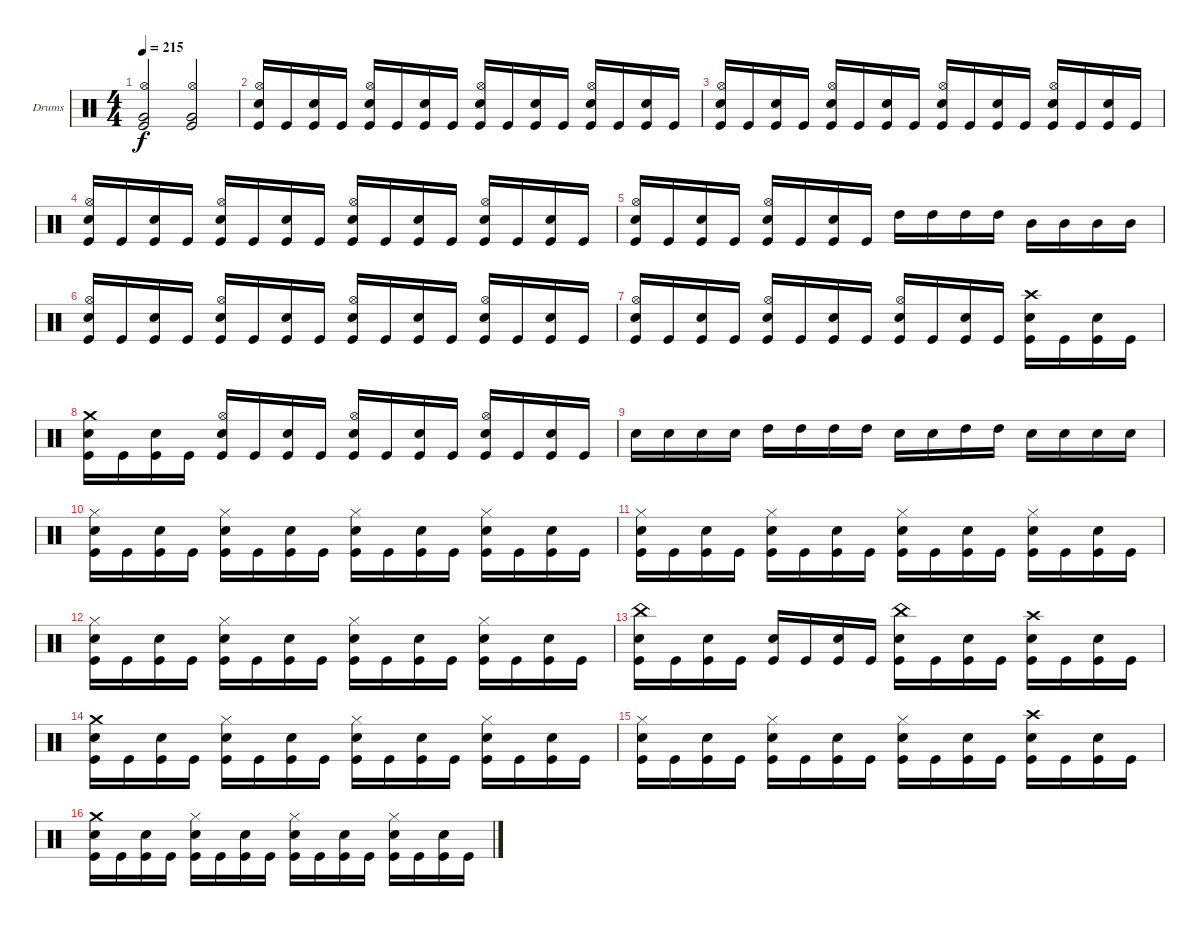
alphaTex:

\defaultSystemsLayout 4
\bracketExtendMode groupsimilarinstruments
\firstSystemTrackNameOrientation horizontal
\otherSystemsTrackNameOrientation horizontal
\track ("Trey Williams" "Drums") {instrument percussion}
\staff {score}
\articulation defaults
\ts (4 4)
\tempo 215
\clef neutral
\ks c
("Kick (hit)" "Hi-Hat (open)" "Very Low Tom (hit)").2{dy f} ("Kick (hit)" "Hi-Hat (open)" "Very Low Tom (hit)").2 |
("Kick (hit)" "Snare (hit) 2" "Hi-Hat (open)").16 "Kick (hit)".16 ("Kick (hit)" "Snare (hit) 2").16 "Kick (hit)".16 ("Kick (hit)" "Snare (hit) 2" "Hi-Hat (open)").16 "Kick (hit)".16 ("Kick (hit)" "Snare (hit) 2").16 "Kick (hit)".16 ("Kick (hit)" "Snare (hit) 2" "Hi-Hat (open)").16 "Kick (hit)".16 ("Kick (hit)" "Snare (hit) 2").16 "Kick (hit)".16 ("Kick (hit)" "Snare (hit) 2" "Hi-Hat (open)").16 "Kick (hit)".16 ("Kick (hit)" "Snare (hit) 2").16 "Kick (hit)".16 |
("Kick (hit)" "Snare (hit) 2" "Hi-Hat (open)").16 "Kick (hit)".16 ("Kick (hit)" "Snare (hit) 2").16 "Kick (hit)".16 ("Kick (hit)" "Snare (hit) 2" "Hi-Hat (open)").16 "Kick (hit)".16 ("Kick (hit)" "Snare (hit) 2").16 "Kick (hit)".16 ("Kick (hit)" "Snare (hit) 2" "Hi-Hat (open)").16 "Kick (hit)".16 ("Kick (hit)" "Snare (hit) 2").16 "Kick (hit)".16 ("Kick (hit)" "Snare (hit) 2" "Hi-Hat (open)").16 "Kick (hit)".16 ("Kick (hit)" "Snare (hit) 2").16 "Kick (hit)".16 |
("Kick (hit)" "Snare (hit) 2" "Hi-Hat (open)").16 "Kick (hit)".16 ("Kick (hit)" "Snare (hit) 2").16 "Kick (hit)".16 ("Kick (hit)" "Snare (hit) 2" "Hi-Hat (open)").16 "Kick (hit)".16 ("Kick (hit)" "Snare (hit) 2").16 "Kick (hit)".16 ("Kick (hit)" "Snare (hit) 2" "Hi-Hat (open)").16 "Kick (hit)".16 ("Kick (hit)" "Snare (hit) 2").16 "Kick (hit)".16 ("Kick (hit)" "Snare (hit) 2" "Hi-Hat (open)").16 "Kick (hit)".16 ("Kick (hit)" "Snare (hit) 2").16 "Kick (hit)".16 |
("Kick (hit)" "Snare (hit) 2" "Hi-Hat (open)").16 "Kick (hit)".16 ("Kick (hit)" "Snare (hit) 2").16 "Kick (hit)".16 ("Kick (hit)" "Snare (hit) 2" "Hi-Hat (open)").16 "Kick (hit)".16 ("Kick (hit)" "Snare (hit) 2").16 "Kick (hit)".16 "High Tom (hit)".16 "High Tom (hit)".16 "High Tom (hit)".16 "High Tom (hit)".16 "Mid Tom (hit)".16 "Mid Tom (hit)".16 "Mid Tom (hit)".16 "Mid Tom (hit)".16 |
("Kick (hit)" "Snare (hit) 2" "Hi-Hat (open)").16 "Kick (hit)".16 ("Kick (hit)" "Snare (hit) 2").16 "Kick (hit)".16 ("Kick (hit)" "Snare (hit) 2" "Hi-Hat (open)").16 "Kick (hit)".16 ("Kick (hit)" "Snare (hit) 2").16 "Kick (hit)".16 ("Kick (hit)" "Snare (hit) 2" "Hi-Hat (open)").16 "Kick (hit)".16 ("Kick (hit)" "Snare (hit) 2").16 "Kick (hit)".16 ("Kick (hit)" "Snare (hit) 2" "Hi-Hat (open)").16 "Kick (hit)".16 ("Kick (hit)" "Snare (hit) 2").16 "Kick (hit)".16 |
("Kick (hit)" "Snare (hit) 2" "Hi-Hat (open)").16 "Kick (hit)".16 ("Kick (hit)" "Snare (hit) 2").16 "Kick (hit)".16 ("Kick (hit)" "Snare (hit) 2" "Hi-Hat (open)").16 "Kick (hit)".16 ("Kick (hit)" "Snare (hit) 2").16 "Kick (hit)".16 ("Kick (hit)" "Snare (hit) 2" "Hi-Hat (open)").16 "Kick (hit)".16 ("Kick (hit)" "Snare (hit) 2").16 "Kick (hit)".16 ("Kick (hit)" "Snare (hit) 2" "Crash high (hit)").16 "Kick (hit)".16 ("Kick (hit)" "Snare (hit) 2").16 "Kick (hit)".16 |
("Kick (hit)" "Snare (hit) 2" "Crash medium (hit)").16 "Kick (hit)".16 ("Kick (hit)" "Snare (hit) 2").16 "Kick (hit)".16 ("Kick (hit)" "Snare (hit) 2" "Hi-Hat (open)").16 "Kick (hit)".16 ("Kick (hit)" "Snare (hit) 2").16 "Kick (hit)".16 ("Kick (hit)" "Snare (hit) 2" "Hi-Hat (open)").16 "Kick (hit)".16 ("Kick (hit)" "Snare (hit) 2").16 "Kick (hit)".16 ("Kick (hit)" "Snare (hit) 2" "Hi-Hat (open)").16 "Kick (hit)".16 ("Kick (hit)" "Snare (hit) 2").16 "Kick (hit)".16 |
"Snare (hit) 2".16 "Snare (hit) 2".16 "Snare (hit) 2".16 "Snare (hit) 2".16 "High Tom (hit)".16 "High Tom (hit)".16 "High Tom (hit)".16 "High Tom (hit)".16 "Snare (hit) 2".16 "Snare (hit) 2".16 "High Tom (hit)".16 "High Tom (hit)".16 "Snare (hit) 2".16 "Snare (hit) 2".16 "Snare (hit) 2".16 "Snare (hit) 2".16 |
("Kick (hit)" "Snare (hit) 2" "Hi-Hat (closed)").16 "Kick (hit)".16 ("Kick (hit)" "Snare (hit) 2").16 "Kick (hit)".16 ("Kick (hit)" "Snare (hit) 2" "Hi-Hat (closed)").16 "Kick (hit)".16 ("Kick (hit)" "Snare (hit) 2").16 "Kick (hit)".16 ("Kick (hit)" "Snare (hit) 2" "Hi-Hat (closed)").16 "Kick (hit)".16 ("Kick (hit)" "Snare (hit) 2").16 "Kick (hit)".16 ("Kick (hit)" "Snare (hit) 2" "Hi-Hat (closed)").16 "Kick (hit)".16 ("Kick (hit)" "Snare (hit) 2").16 "Kick (hit)".16 |
("Kick (hit)" "Snare (hit) 2" "Hi-Hat (closed)").16 "Kick (hit)".16 ("Kick (hit)" "Snare (hit) 2").16 "Kick (hit)".16 ("Kick (hit)" "Snare (hit) 2" "Hi-Hat (closed)").16 "Kick (hit)".16 ("Kick (hit)" "Snare (hit) 2").16 "Kick (hit)".16 ("Kick (hit)" "Snare (hit) 2" "Hi-Hat (closed)").16 "Kick (hit)".16 ("Kick (hit)" "Snare (hit) 2").16 "Kick (hit)".16 ("Kick (hit)" "Snare (hit) 2" "Hi-Hat (closed)").16 "Kick (hit)".16 ("Kick (hit)" "Snare (hit) 2").16 "Kick (hit)".16 |
("Kick (hit)" "Snare (hit) 2" "Hi-Hat (closed)").16 "Kick (hit)".16 ("Kick (hit)" "Snare (hit) 2").16 "Kick (hit)".16 ("Kick (hit)" "Snare (hit) 2" "Hi-Hat (closed)").16 "Kick (hit)".16 ("Kick (hit)" "Snare (hit) 2").16 "Kick (hit)".16 ("Kick (hit)" "Snare (hit) 2" "Hi-Hat (closed)").16 "Kick (hit)".16 ("Kick (hit)" "Snare (hit) 2").16 "Kick (hit)".16 ("Kick (hit)" "Snare (hit) 2" "Hi-Hat (closed)").16 "Kick (hit)".16 ("Kick (hit)" "Snare (hit) 2").16 "Kick (hit)".16 |
("Kick (hit)" "Snare (hit) 2" "China (hit)").16 "Kick (hit)".16 ("Kick (hit)" "Snare (hit) 2").16 "Kick (hit)".16 ("Kick (hit)" "Snare (hit) 2").16 "Kick (hit)".16 ("Kick (hit)" "Snare (hit) 2").16 "Kick (hit)".16 ("Kick (hit)" "Snare (hit) 2" "China (hit)").16 "Kick (hit)".16 ("Kick (hit)" "Snare (hit) 2").16 "Kick (hit)".16 ("Kick (hit)" "Snare (hit) 2" "Crash high (hit)").16 "Kick (hit)".16 ("Kick (hit)" "Snare (hit) 2").16 "Kick (hit)".16 |
("Kick (hit)" "Snare (hit) 2" "Crash medium (hit)").16 "Kick (hit)".16 ("Kick (hit)" "Snare (hit) 2").16 "Kick (hit)".16 ("Kick (hit)" "Snare (hit) 2" "Hi-Hat (closed)").16 "Kick (hit)".16 ("Kick (hit)" "Snare (hit) 2").16 "Kick (hit)".16 ("Kick (hit)" "Snare (hit) 2" "Hi-Hat (closed)").16 "Kick (hit)".16 ("Kick (hit)" "Snare (hit) 2").16 "Kick (hit)".16 ("Kick (hit)" "Snare (hit) 2" "Hi-Hat (closed)").16 "Kick (hit)".16 ("Kick (hit)" "Snare (hit) 2").16 "Kick (hit)".16 |
("Kick (hit)" "Snare (hit) 2" "Hi-Hat (closed)").16 "Kick (hit)".16 ("Kick (hit)" "Snare (hit) 2").16 "Kick (hit)".16 ("Kick (hit)" "Snare (hit) 2" "Hi-Hat (closed)").16 "Kick (hit)".16 ("Kick (hit)" "Snare (hit) 2").16 "Kick (hit)".16 ("Kick (hit)" "Snare (hit) 2" "Hi-Hat (closed)").16 "Kick (hit)".16 ("Kick (hit)" "Snare (hit) 2").16 "Kick (hit)".16 ("Kick (hit)" "Snare (hit) 2" "Crash high (hit)").16 "Kick (hit)".16 ("Kick (hit)" "Snare (hit) 2").16 "Kick (hit)".16 |
("Kick (hit)" "Snare (hit) 2" "Crash medium (hit)").16 "Kick (hit)".16 ("Kick (hit)" "Snare (hit) 2").16 "Kick (hit)".16 ("Kick (hit)" "Snare (hit) 2" "Hi-Hat (closed)").16 "Kick (hit)".16 ("Kick (hit)" "Snare (hit) 2").16 "Kick (hit)".16 ("Kick (hit)" "Snare (hit) 2" "Hi-Hat (closed)").16 "Kick (hit)".16 ("Kick (hit)" "Snare (hit) 2").16 "Kick (hit)".16 ("Kick (hit)" "Snare (hit) 2" "Hi-Hat (closed)").16 "Kick (hit)".16 ("Kick (hit)" "Snare (hit) 2").16 "Kick (hit)".16
